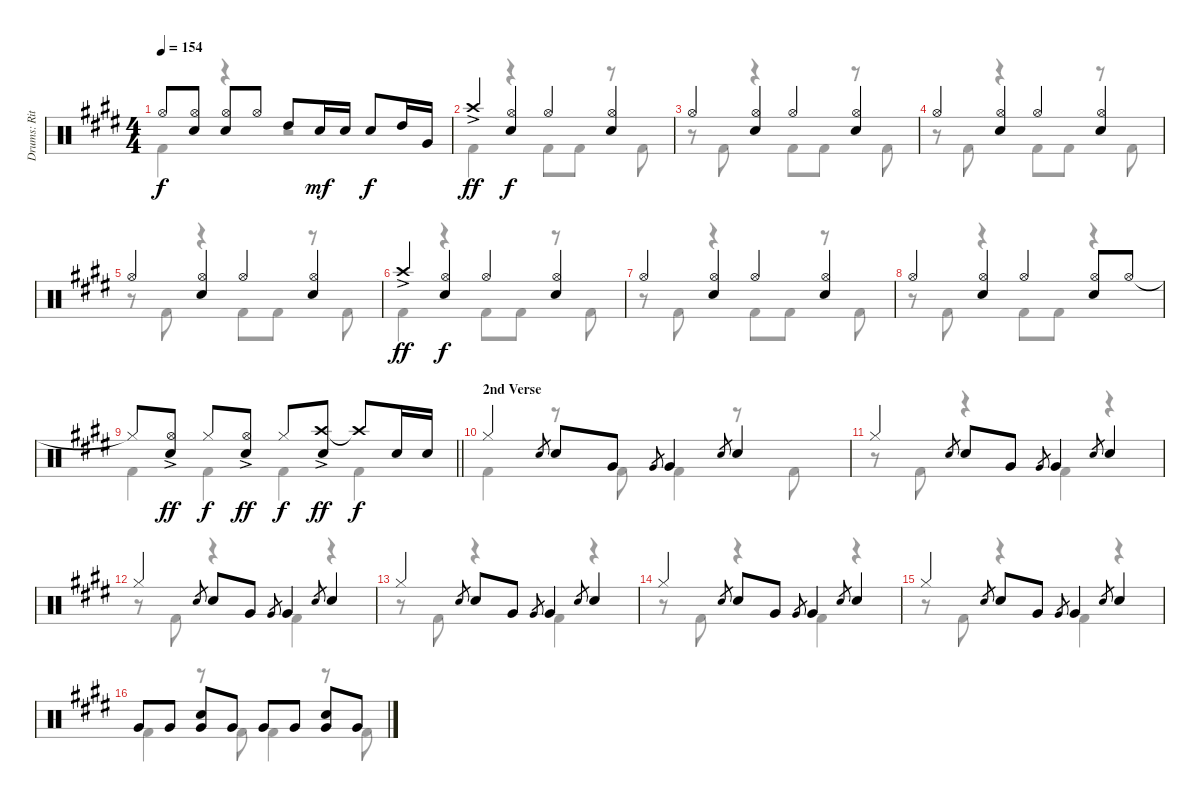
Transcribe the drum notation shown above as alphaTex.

\track ("Drums: Ritsu Tainaka" "Drums: Rit") {instrument percussion}
\staff {score}
\articulation defaults
\voice
\ts (4 4)
\tempo 154
\clef neutral
\ks e "Hi-Hat (open)".8{dy f}
("Hi-Hat (open)" "Electric Snare (hit)").8 ("Hi-Hat (open)" "Electric Snare (hit)").8 "Hi-Hat (open)".8 "High Tom (hit)".8 "Electric Snare (hit)".16{dy mf} "Electric Snare (hit)".16 "Electric Snare (hit)".8{dy f} "High Tom (hit)".16 "Very Low Tom (hit)".16 |
"Crash high (hit)"{ac}.4{dy ff} ("Hi-Hat (open)" "Electric Snare (hit)").4{dy f} "Hi-Hat (open)".4 ("Hi-Hat (open)" "Electric Snare (hit)").4 |
"Hi-Hat (open)".4 ("Hi-Hat (open)" "Electric Snare (hit)").4 "Hi-Hat (open)".4 ("Hi-Hat (open)" "Electric Snare (hit)").4 |
"Hi-Hat (open)".4 ("Hi-Hat (open)" "Electric Snare (hit)").4 "Hi-Hat (open)".4 ("Hi-Hat (open)" "Electric Snare (hit)").4 |
"Hi-Hat (open)".4 ("Hi-Hat (open)" "Electric Snare (hit)").4 "Hi-Hat (open)".4 ("Hi-Hat (open)" "Electric Snare (hit)").4 |
"Crash high (hit)"{ac}.4{dy ff} ("Hi-Hat (open)" "Electric Snare (hit)").4{dy f} "Hi-Hat (open)".4 ("Hi-Hat (open)" "Electric Snare (hit)").4 |
"Hi-Hat (open)".4 ("Hi-Hat (open)" "Electric Snare (hit)").4 "Hi-Hat (open)".4 ("Hi-Hat (open)" "Electric Snare (hit)").4 |
"Hi-Hat (open)".4 ("Hi-Hat (open)" "Electric Snare (hit)").4 "Hi-Hat (open)".4 ("Hi-Hat (open)" "Electric Snare (hit)").8 "Hi-Hat (open)".8 |
\barLineRight lightlight "Hi-Hat (closed)"{t}.8
("Hi-Hat (open)"{ac} "Electric Snare (hit)").8{dy ff} "Hi-Hat (closed)".8{dy f} ("Hi-Hat (open)"{ac} "Electric Snare (hit)").8{dy ff} "Hi-Hat (closed)".8{dy f} ("Crash high (hit)"{ac} "Electric Snare (hit)").8{dy ff} "Crash high (hit)"{t}.8{dy f} "Electric Snare (hit)".16 "Electric Snare (hit)".16 |
\section ("" "2nd Verse")
"Hi-Hat (closed)".4 "Electric Snare (hit)".8{gr} "Electric Snare (hit)".8 "Very Low Tom (hit)".8 "Very Low Tom (hit)".8{gr} "Very Low Tom (hit)".4 "Electric Snare (hit)".8{gr} "Electric Snare (hit)".4 |
"Hi-Hat (closed)".4 "Electric Snare (hit)".8{gr} "Electric Snare (hit)".8 "Very Low Tom (hit)".8 "Very Low Tom (hit)".8{gr} "Very Low Tom (hit)".4 "Electric Snare (hit)".8{gr} "Electric Snare (hit)".4 |
"Hi-Hat (closed)".4 "Electric Snare (hit)".8{gr} "Electric Snare (hit)".8 "Very Low Tom (hit)".8 "Very Low Tom (hit)".8{gr} "Very Low Tom (hit)".4 "Electric Snare (hit)".8{gr} "Electric Snare (hit)".4 |
"Hi-Hat (closed)".4 "Electric Snare (hit)".8{gr} "Electric Snare (hit)".8 "Very Low Tom (hit)".8 "Very Low Tom (hit)".8{gr} "Very Low Tom (hit)".4 "Electric Snare (hit)".8{gr} "Electric Snare (hit)".4 |
"Hi-Hat (closed)".4 "Electric Snare (hit)".8{gr} "Electric Snare (hit)".8 "Very Low Tom (hit)".8 "Very Low Tom (hit)".8{gr} "Very Low Tom (hit)".4 "Electric Snare (hit)".8{gr} "Electric Snare (hit)".4 |
"Hi-Hat (closed)".4 "Electric Snare (hit)".8{gr} "Electric Snare (hit)".8 "Very Low Tom (hit)".8 "Very Low Tom (hit)".8{gr} "Very Low Tom (hit)".4 "Electric Snare (hit)".8{gr} "Electric Snare (hit)".4 |
"Very Low Tom (hit)".8 "Very Low Tom (hit)".8 ("Electric Snare (hit)" "Very Low Tom (hit)").8 "Very Low Tom (hit)".8 "Very Low Tom (hit)".8 "Very Low Tom (hit)".8 ("Electric Snare (hit)" "Very Low Tom (hit)").8 "Very Low Tom (hit)".8
\voice
\clef neutral
\ottava regular
\simile none
\ks e "Kick (hit) 2".4{dy f}
r.4 r.2 |
"Kick (hit) 2".4 r.4 "Kick (hit) 2".8 "Kick (hit) 2".8 r.8 "Kick (hit) 2".8 |
r.8 "Kick (hit) 2".8 r.4 "Kick (hit) 2".8 "Kick (hit) 2".8 r.8 "Kick (hit) 2".8 |
r.8 "Kick (hit) 2".8 r.4 "Kick (hit) 2".8 "Kick (hit) 2".8 r.8 "Kick (hit) 2".8 |
r.8 "Kick (hit) 2".8 r.4 "Kick (hit) 2".8 "Kick (hit) 2".8 r.8 "Kick (hit) 2".8 |
"Kick (hit) 2".4 r.4 "Kick (hit) 2".8 "Kick (hit) 2".8 r.8 "Kick (hit) 2".8 |
r.8 "Kick (hit) 2".8 r.4 "Kick (hit) 2".8 "Kick (hit) 2".8 r.8 "Kick (hit) 2".8 |
r.8 "Kick (hit) 2".8 r.4 "Kick (hit) 2".8 "Kick (hit) 2".8 r.4 |
\barLineRight lightlight "Kick (hit) 2".4 "Kick (hit) 2".4 "Kick (hit) 2".4 "Kick (hit) 2".4
|
"Kick (hit) 2".4 r.8 "Kick (hit) 2".8 "Kick (hit) 2".4 r.8 "Kick (hit) 2".8 |
r.8 "Kick (hit) 2".8 r.4 "Kick (hit) 2".4 r.4 |
r.8 "Kick (hit) 2".8 r.4 "Kick (hit) 2".4 r.4 |
r.8 "Kick (hit) 2".8 r.4 "Kick (hit) 2".4 r.4 |
r.8 "Kick (hit) 2".8 r.4 "Kick (hit) 2".4 r.4 |
r.8 "Kick (hit) 2".8 r.4 "Kick (hit) 2".4 r.4 |
"Kick (hit) 2".4 r.8 "Kick (hit) 2".8 "Kick (hit) 2".4 r.8 "Kick (hit) 2".8
